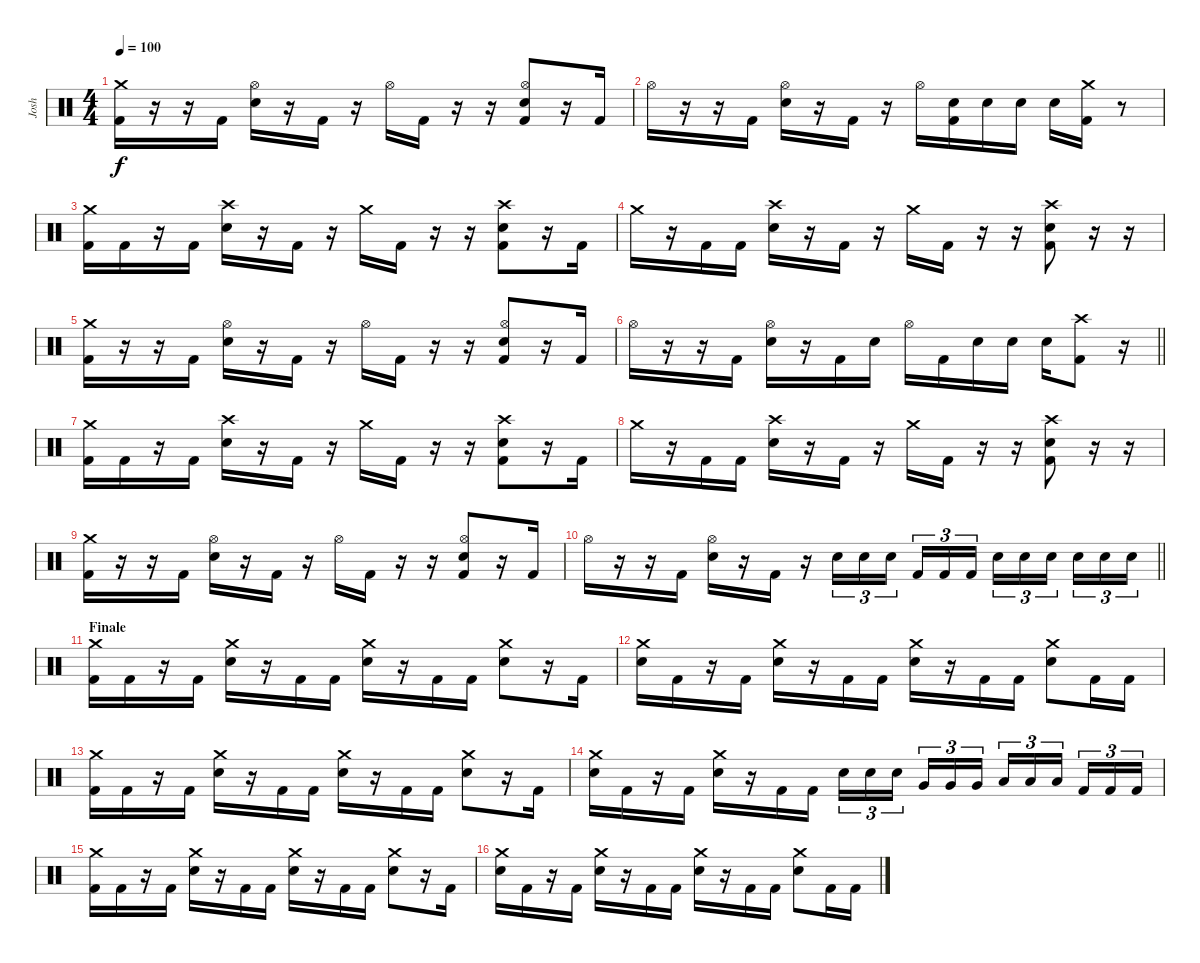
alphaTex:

\track ("Josh" "Josh") {instrument percussion}
\staff {score}
\articulation defaults
\ts (4 4)
\tempo 100
\clef neutral
\ks c
("Crash medium (hit)" "Kick (hit) 2").16{dy f} r.16 r.16 "Kick (hit) 2".16 ("Hi-Hat (open)" "Snare (hit) 2").16 r.16 "Kick (hit) 2".16 r.16 "Hi-Hat (open)".16 "Kick (hit) 2".16 r.16 r.16 ("Hi-Hat (open)" "Snare (hit) 2" "Kick (hit) 2").8 r.16 "Kick (hit) 2".16 |
"Hi-Hat (open)".16 r.16 r.16 "Kick (hit) 2".16 ("Hi-Hat (open)" "Snare (hit) 2").16 r.16 "Kick (hit) 2".16 r.16 "Hi-Hat (open)".16 ("Snare (hit) 2" "Kick (hit) 2").16 "Snare (hit) 2".16 "Snare (hit) 2".16 "Snare (hit) 2".16 ("Crash medium (hit)" "Kick (hit) 2").16 r.8 |
("Crash medium (hit)" "Kick (hit) 2").16 "Kick (hit) 2".16 r.16 "Kick (hit) 2".16 ("Crash high (hit)" "Snare (hit) 2").16 r.16 "Kick (hit) 2".16 r.16 "Crash medium (hit)".16 "Kick (hit) 2".16 r.16 r.16 ("Crash high (hit)" "Snare (hit) 2" "Kick (hit) 2").8 r.16 "Kick (hit) 2".16 |
"Crash medium (hit)".16 r.16 "Kick (hit) 2".16 "Kick (hit) 2".16 ("Crash high (hit)" "Snare (hit) 2").16 r.16 "Kick (hit) 2".16 r.16 "Crash medium (hit)".16 "Kick (hit) 2".16 r.16 r.16 ("Crash high (hit)" "Snare (hit) 2" "Kick (hit) 2").8 r.16 r.16 |
("Crash medium (hit)" "Kick (hit) 2").16 r.16 r.16 "Kick (hit) 2".16 ("Hi-Hat (open)" "Snare (hit) 2").16 r.16 "Kick (hit) 2".16 r.16 "Hi-Hat (open)".16 "Kick (hit) 2".16 r.16 r.16 ("Hi-Hat (open)" "Snare (hit) 2" "Kick (hit) 2").8 r.16 "Kick (hit) 2".16 |
\barLineRight lightlight "Hi-Hat (open)".16
r.16 r.16 "Kick (hit) 2".16 ("Hi-Hat (open)" "Snare (hit) 2").16 r.16 "Kick (hit) 2".16 "Snare (hit) 2".16 "Hi-Hat (open)".16 "Kick (hit) 2".16 "Snare (hit) 2".16 "Snare (hit) 2".16 "Snare (hit) 2".16 ("Crash high (hit)" "Kick (hit) 2").8 r.16 |
("Crash medium (hit)" "Kick (hit) 2").16 "Kick (hit) 2".16 r.16 "Kick (hit) 2".16 ("Crash high (hit)" "Snare (hit) 2").16 r.16 "Kick (hit) 2".16 r.16 "Crash medium (hit)".16 "Kick (hit) 2".16 r.16 r.16 ("Crash high (hit)" "Snare (hit) 2" "Kick (hit) 2").8 r.16 "Kick (hit) 2".16 |
"Crash medium (hit)".16 r.16 "Kick (hit) 2".16 "Kick (hit) 2".16 ("Crash high (hit)" "Snare (hit) 2").16 r.16 "Kick (hit) 2".16 r.16 "Crash medium (hit)".16 "Kick (hit) 2".16 r.16 r.16 ("Crash high (hit)" "Snare (hit) 2" "Kick (hit) 2").8 r.16 r.16 |
("Crash medium (hit)" "Kick (hit) 2").16 r.16 r.16 "Kick (hit) 2".16 ("Hi-Hat (open)" "Snare (hit) 2").16 r.16 "Kick (hit) 2".16 r.16 "Hi-Hat (open)".16 "Kick (hit) 2".16 r.16 r.16 ("Hi-Hat (open)" "Snare (hit) 2" "Kick (hit) 2").8 r.16 "Kick (hit) 2".16 |
\barLineRight lightlight "Hi-Hat (open)".16
r.16 r.16 "Kick (hit) 2".16 ("Hi-Hat (open)" "Snare (hit) 2").16 r.16 "Kick (hit) 2".16 r.16 "Snare (hit) 2".16{tu (3 2)} "Snare (hit) 2".16{tu (3 2)} "Snare (hit) 2".16{tu (3 2) beam splitsecondary} "Kick (hit) 2".16{tu (3 2)} "Kick (hit) 2".16{tu (3 2)} "Kick (hit) 2".16{tu (3 2)} "Snare (hit) 2".16{tu (3 2)} "Snare (hit) 2".16{tu (3 2)} "Snare (hit) 2".16{tu (3 2) beam splitsecondary} "Snare (hit) 2".16{tu (3 2)} "Snare (hit) 2".16{tu (3 2)} "Snare (hit) 2".16{tu (3 2)} |
\section ("" "Finale")
("Crash medium (hit)" "Kick (hit) 2").16 "Kick (hit) 2".16 r.16 "Kick (hit) 2".16 ("Crash medium (hit)" "Snare (hit) 2").16 r.16 "Kick (hit) 2".16 "Kick (hit) 2".16 ("Crash medium (hit)" "Snare (hit) 2").16 r.16 "Kick (hit) 2".16 "Kick (hit) 2".16 ("Crash medium (hit)" "Snare (hit) 2").8 r.16 "Kick (hit) 2".16 |
("Crash medium (hit)" "Snare (hit) 2").16 "Kick (hit) 2".16 r.16 "Kick (hit) 2".16 ("Crash medium (hit)" "Snare (hit) 2").16 r.16 "Kick (hit) 2".16 "Kick (hit) 2".16 ("Crash medium (hit)" "Snare (hit) 2").16 r.16 "Kick (hit) 2".16 "Kick (hit) 2".16 ("Crash medium (hit)" "Snare (hit) 2").8 "Kick (hit) 2".16 "Kick (hit) 2".16 |
("Crash medium (hit)" "Kick (hit) 2").16 "Kick (hit) 2".16 r.16 "Kick (hit) 2".16 ("Crash medium (hit)" "Snare (hit) 2").16 r.16 "Kick (hit) 2".16 "Kick (hit) 2".16 ("Crash medium (hit)" "Snare (hit) 2").16 r.16 "Kick (hit) 2".16 "Kick (hit) 2".16 ("Crash medium (hit)" "Snare (hit) 2").8 r.16 "Kick (hit) 2".16 |
("Crash medium (hit)" "Snare (hit) 2").16 "Kick (hit) 2".16 r.16 "Kick (hit) 2".16 ("Crash medium (hit)" "Snare (hit) 2").16 r.16 "Kick (hit) 2".16 "Kick (hit) 2".16 "Snare (hit) 2".16{tu (3 2)} "Snare (hit) 2".16{tu (3 2)} "Snare (hit) 2".16{tu (3 2) beam splitsecondary} "Very Low Tom (hit)".16{tu (3 2)} "Very Low Tom (hit)".16{tu (3 2)} "Very Low Tom (hit)".16{tu (3 2)} "Low Floor Tom (hit)".16{tu (3 2)} "Low Floor Tom (hit)".16{tu (3 2)} "Low Floor Tom (hit)".16{tu (3 2) beam splitsecondary} "Kick (hit) 2".16{tu (3 2)} "Kick (hit) 2".16{tu (3 2)} "Kick (hit) 2".16{tu (3 2)} |
("Crash medium (hit)" "Kick (hit) 2").16 "Kick (hit) 2".16 r.16 "Kick (hit) 2".16 ("Crash medium (hit)" "Snare (hit) 2").16 r.16 "Kick (hit) 2".16 "Kick (hit) 2".16 ("Crash medium (hit)" "Snare (hit) 2").16 r.16 "Kick (hit) 2".16 "Kick (hit) 2".16 ("Crash medium (hit)" "Snare (hit) 2").8 r.16 "Kick (hit) 2".16 |
("Crash medium (hit)" "Snare (hit) 2").16 "Kick (hit) 2".16 r.16 "Kick (hit) 2".16 ("Crash medium (hit)" "Snare (hit) 2").16 r.16 "Kick (hit) 2".16 "Kick (hit) 2".16 ("Crash medium (hit)" "Snare (hit) 2").16 r.16 "Kick (hit) 2".16 "Kick (hit) 2".16 ("Crash medium (hit)" "Snare (hit) 2").8 "Kick (hit) 2".16 "Kick (hit) 2".16
